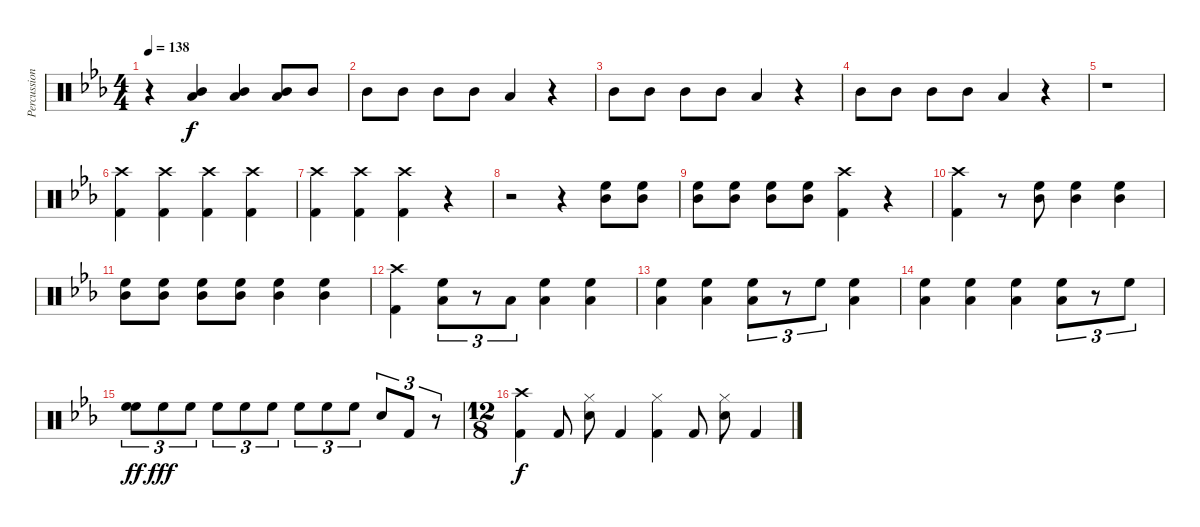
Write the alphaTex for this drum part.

\track ("Percussion" "Percussion") {instrument percussion}
\staff {score}
\articulation defaults
\ts (4 4)
\tempo 138
\clef neutral
\ks eb
r.4{dy f} ("Mid Tom (hit)" "Low Tom (hit)").4 ("Mid Tom (hit)" "Low Tom (hit)").4 ("Mid Tom (hit)" "Low Tom (hit)").8 "Mid Tom (hit)".8 |
"Mid Tom (hit)".8 "Mid Tom (hit)".8 "Mid Tom (hit)".8 "Mid Tom (hit)".8 "Low Tom (hit)".4 r.4 |
"Mid Tom (hit)".8 "Mid Tom (hit)".8 "Mid Tom (hit)".8 "Mid Tom (hit)".8 "Low Tom (hit)".4 r.4 |
"Mid Tom (hit)".8 "Mid Tom (hit)".8 "Mid Tom (hit)".8 "Mid Tom (hit)".8 "Low Tom (hit)".4 r.4 |
r.1 |
("Crash high (hit)" "Kick (hit) 2").4 ("Crash high (hit)" "Kick (hit) 2").4 ("Crash high (hit)" "Kick (hit) 2").4 ("Crash high (hit)" "Kick (hit) 2").4 |
("Crash high (hit)" "Kick (hit) 2").4 ("Crash high (hit)" "Kick (hit) 2").4 ("Crash high (hit)" "Kick (hit) 2").4 r.4 |
r.2 r.4 ("High Floor Tom (hit)" "Mid Tom (hit)").8 ("High Floor Tom (hit)" "Mid Tom (hit)").8 |
("High Floor Tom (hit)" "Mid Tom (hit)").8 ("High Floor Tom (hit)" "Mid Tom (hit)").8 ("High Floor Tom (hit)" "Mid Tom (hit)").8 ("High Floor Tom (hit)" "Mid Tom (hit)").8 ("Crash high (hit)" "Kick (hit) 2").4 r.4 |
("Crash high (hit)" "Kick (hit) 2").4 r.8 ("High Floor Tom (hit)" "Mid Tom (hit)").8 ("High Floor Tom (hit)" "Mid Tom (hit)").4 ("High Floor Tom (hit)" "Mid Tom (hit)").4 |
("High Floor Tom (hit)" "Mid Tom (hit)").8 ("High Floor Tom (hit)" "Mid Tom (hit)").8 ("High Floor Tom (hit)" "Mid Tom (hit)").8 ("High Floor Tom (hit)" "Mid Tom (hit)").8 ("High Floor Tom (hit)" "Mid Tom (hit)").4 ("High Floor Tom (hit)" "Mid Tom (hit)").4 |
("Crash high (hit)" "Kick (hit) 2").4 ("High Floor Tom (hit)" "Low Tom (hit)").8{tu (3 2)} r.8{tu (3 2)} "Low Tom (hit)".8{tu (3 2)} ("High Floor Tom (hit)" "Low Tom (hit)").4 ("High Floor Tom (hit)" "Low Tom (hit)").4 |
("High Floor Tom (hit)" "Low Tom (hit)").4 ("High Floor Tom (hit)" "Low Tom (hit)").4 ("High Floor Tom (hit)" "Low Tom (hit)").8{tu (3 2)} r.8{tu (3 2)} "High Floor Tom (hit)".8{tu (3 2)} ("High Floor Tom (hit)" "Low Tom (hit)").4 |
("High Floor Tom (hit)" "Low Tom (hit)").4 ("High Floor Tom (hit)" "Low Tom (hit)").4 ("High Floor Tom (hit)" "Low Tom (hit)").4 ("High Floor Tom (hit)" "Low Tom (hit)").8{tu (3 2)} r.8{tu (3 2)} "High Floor Tom (hit)".8{tu (3 2)} |
("High Floor Tom (hit)" "High Floor Tom (hit)").8{tu (3 2) dy ff} "High Floor Tom (hit)".8{tu (3 2) dy fff} "High Floor Tom (hit)".8{tu (3 2)} "High Floor Tom (hit)".8{tu (3 2)} "High Floor Tom (hit)".8{tu (3 2)} "High Floor Tom (hit)".8{tu (3 2)} "High Floor Tom (hit)".8{tu (3 2)} "High Floor Tom (hit)".8{tu (3 2)} "High Floor Tom (hit)".8{tu (3 2)} "Snare (hit) 2".8{tu (3 2)} "Kick (hit) 2".8{tu (3 2)} r.8{tu (3 2)} |
\ts (12 8)
("Crash high (hit)" "Kick (hit) 2").4{dy f} "Kick (hit) 2".8 ("Hi-Hat (closed)" "Snare (hit) 2").8 "Kick (hit) 2".4 ("Hi-Hat (closed)" "Kick (hit) 2").4 "Kick (hit) 2".8 ("Hi-Hat (closed)" "Snare (hit) 2").8 "Kick (hit) 2".4
